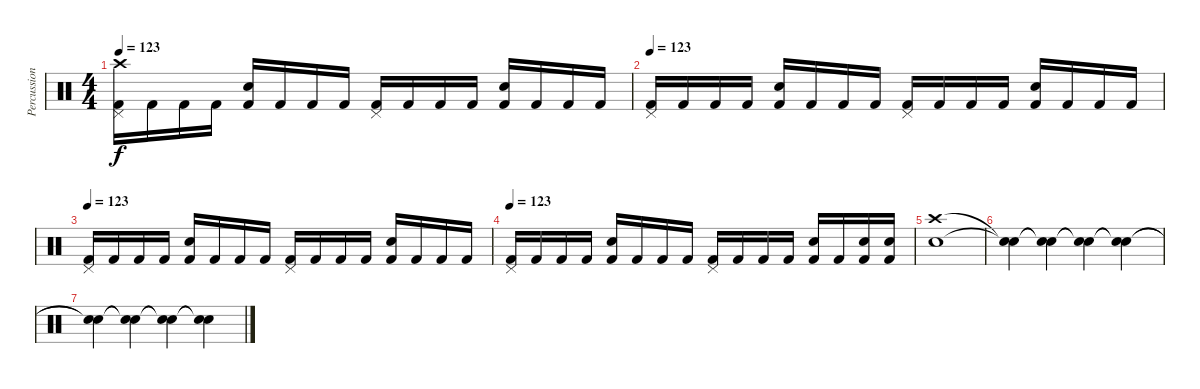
\track ("Percussions" "Percussion") {instrument percussion}
\staff {score}
\articulation defaults
\ts (4 4)
\tempo 123
\clef neutral
\ks c
("Crash high (hit)" "Pedal Hi-Hat (hit)" "Kick (hit) 2").16{dy f} "Kick (hit) 2".16 "Kick (hit) 2".16 "Kick (hit) 2".16 ("Electric Snare (hit)" "Kick (hit) 2").16 "Kick (hit) 2".16 "Kick (hit) 2".16 "Kick (hit) 2".16 ("Pedal Hi-Hat (hit)" "Kick (hit) 2").16 "Kick (hit) 2".16 "Kick (hit) 2".16 "Kick (hit) 2".16 ("Electric Snare (hit)" "Kick (hit) 2").16 "Kick (hit) 2".16 "Kick (hit) 2".16 "Kick (hit) 2".16 |
\tempo 123
("Pedal Hi-Hat (hit)" "Kick (hit) 2").16 "Kick (hit) 2".16 "Kick (hit) 2".16 "Kick (hit) 2".16 ("Electric Snare (hit)" "Kick (hit) 2").16 "Kick (hit) 2".16 "Kick (hit) 2".16 "Kick (hit) 2".16 ("Pedal Hi-Hat (hit)" "Kick (hit) 2").16 "Kick (hit) 2".16 "Kick (hit) 2".16 "Kick (hit) 2".16 ("Electric Snare (hit)" "Kick (hit) 2").16 "Kick (hit) 2".16 "Kick (hit) 2".16 "Kick (hit) 2".16 |
\tempo 123
("Pedal Hi-Hat (hit)" "Kick (hit) 2").16 "Kick (hit) 2".16 "Kick (hit) 2".16 "Kick (hit) 2".16 ("Electric Snare (hit)" "Kick (hit) 2").16 "Kick (hit) 2".16 "Kick (hit) 2".16 "Kick (hit) 2".16 ("Pedal Hi-Hat (hit)" "Kick (hit) 2").16 "Kick (hit) 2".16 "Kick (hit) 2".16 "Kick (hit) 2".16 ("Electric Snare (hit)" "Kick (hit) 2").16 "Kick (hit) 2".16 "Kick (hit) 2".16 "Kick (hit) 2".16 |
\tempo 123
("Pedal Hi-Hat (hit)" "Kick (hit) 2").16 "Kick (hit) 2".16 "Kick (hit) 2".16 "Kick (hit) 2".16 ("Electric Snare (hit)" "Kick (hit) 2").16 "Kick (hit) 2".16 "Kick (hit) 2".16 "Kick (hit) 2".16 ("Pedal Hi-Hat (hit)" "Kick (hit) 2").16 "Kick (hit) 2".16 "Kick (hit) 2".16 "Kick (hit) 2".16 ("Electric Snare (hit)" "Kick (hit) 2").16 "Kick (hit) 2".16 ("Electric Snare (hit)" "Kick (hit) 2").16 ("Electric Snare (hit)" "Kick (hit) 2").16 |
("Electric Snare (hit)" "Crash high (hit)").1 |
("Snare (hit)"{t} "Snare (hit)"{t}).4 ("Snare (hit)"{t} "Snare (hit)"{t}).4 ("Snare (hit)"{t} "Snare (hit)"{t}).4 ("Snare (hit)"{t} "Snare (hit)"{t}).4 |
("Snare (hit)"{t} "Snare (hit)"{t}).4 ("Snare (hit)"{t} "Snare (hit)"{t}).4 ("Snare (hit)"{t} "Snare (hit)"{t}).4 ("Snare (hit)"{t} "Snare (hit)"{t}).4
